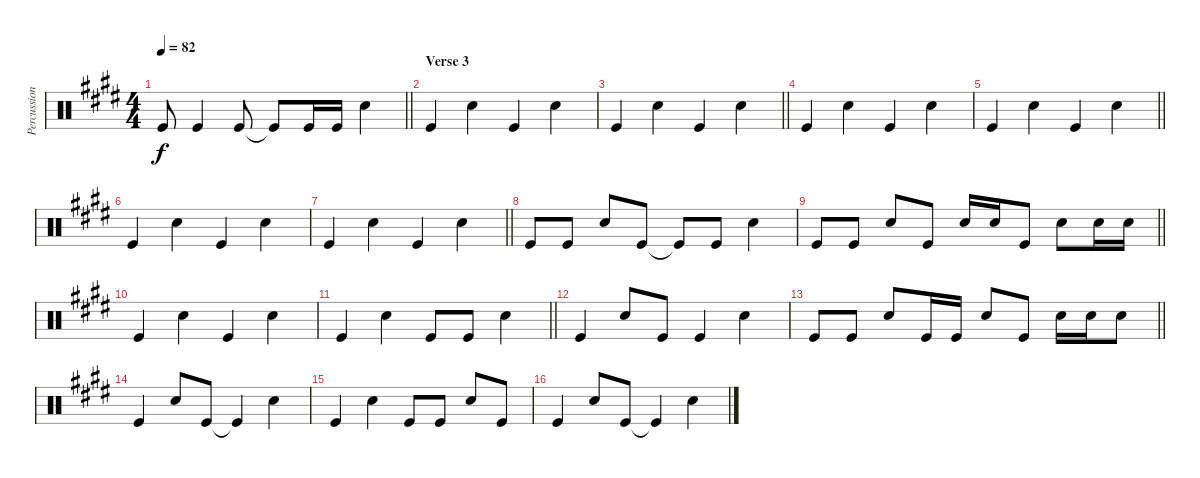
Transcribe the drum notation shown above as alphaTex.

\track ("Percussion" "Percussion") {instrument percussion}
\staff {score}
\articulation defaults
\ts (4 4)
\tempo 82
\clef neutral
\barLineRight lightlight
\ks e "Kick (hit)".8{dy f} "Kick (hit)".4 "Kick (hit)".8 "Kick (hit)"{t}.8 "Kick (hit)".16 "Kick (hit)".16 "Snare (hit) 2".4
|
\section ("" "Verse 3")
"Kick (hit)".4 "Snare (hit) 2".4 "Kick (hit)".4 "Snare (hit) 2".4 |
\barLineRight lightlight "Kick (hit)".4 "Snare (hit) 2".4 "Kick (hit)".4 "Snare (hit) 2".4
|
"Kick (hit)".4 "Snare (hit) 2".4 "Kick (hit)".4 "Snare (hit) 2".4 |
\barLineRight lightlight "Kick (hit)".4 "Snare (hit) 2".4 "Kick (hit)".4 "Snare (hit) 2".4
|
"Kick (hit)".4 "Snare (hit) 2".4 "Kick (hit)".4 "Snare (hit) 2".4 |
\barLineRight lightlight "Kick (hit)".4 "Snare (hit) 2".4 "Kick (hit)".4 "Snare (hit) 2".4
|
"Kick (hit)".8 "Kick (hit)".8 "Snare (hit) 2".8 "Kick (hit)".8 "Kick (hit)"{t}.8 "Kick (hit)".8 "Snare (hit) 2".4 |
\barLineRight lightlight "Kick (hit)".8 "Kick (hit)".8 "Snare (hit) 2".8 "Kick (hit)".8 "Snare (hit) 2".16 "Snare (hit) 2".16 "Kick (hit)".8 "Snare (hit) 2".8 "Snare (hit) 2".16 "Snare (hit) 2".16
|
"Kick (hit)".4 "Snare (hit) 2".4 "Kick (hit)".4 "Snare (hit) 2".4 |
\barLineRight lightlight "Kick (hit)".4 "Snare (hit) 2".4 "Kick (hit)".8 "Kick (hit)".8 "Snare (hit) 2".4
|
"Kick (hit)".4 "Snare (hit) 2".8 "Kick (hit)".8 "Kick (hit)".4 "Snare (hit) 2".4 |
\barLineRight lightlight "Kick (hit)".8 "Kick (hit)".8 "Snare (hit) 2".8 "Kick (hit)".16 "Kick (hit)".16 "Snare (hit) 2".8 "Kick (hit)".8 "Snare (hit) 2".16 "Snare (hit) 2".16 "Snare (hit) 2".8
|
"Kick (hit)".4 "Snare (hit) 2".8 "Kick (hit)".8 "Kick (hit)"{t}.4 "Snare (hit) 2".4 |
"Kick (hit)".4 "Snare (hit) 2".4 "Kick (hit)".8 "Kick (hit)".8 "Snare (hit) 2".8 "Kick (hit)".8 |
"Kick (hit)".4 "Snare (hit) 2".8 "Kick (hit)".8 "Kick (hit)"{t}.4 "Snare (hit) 2".4
